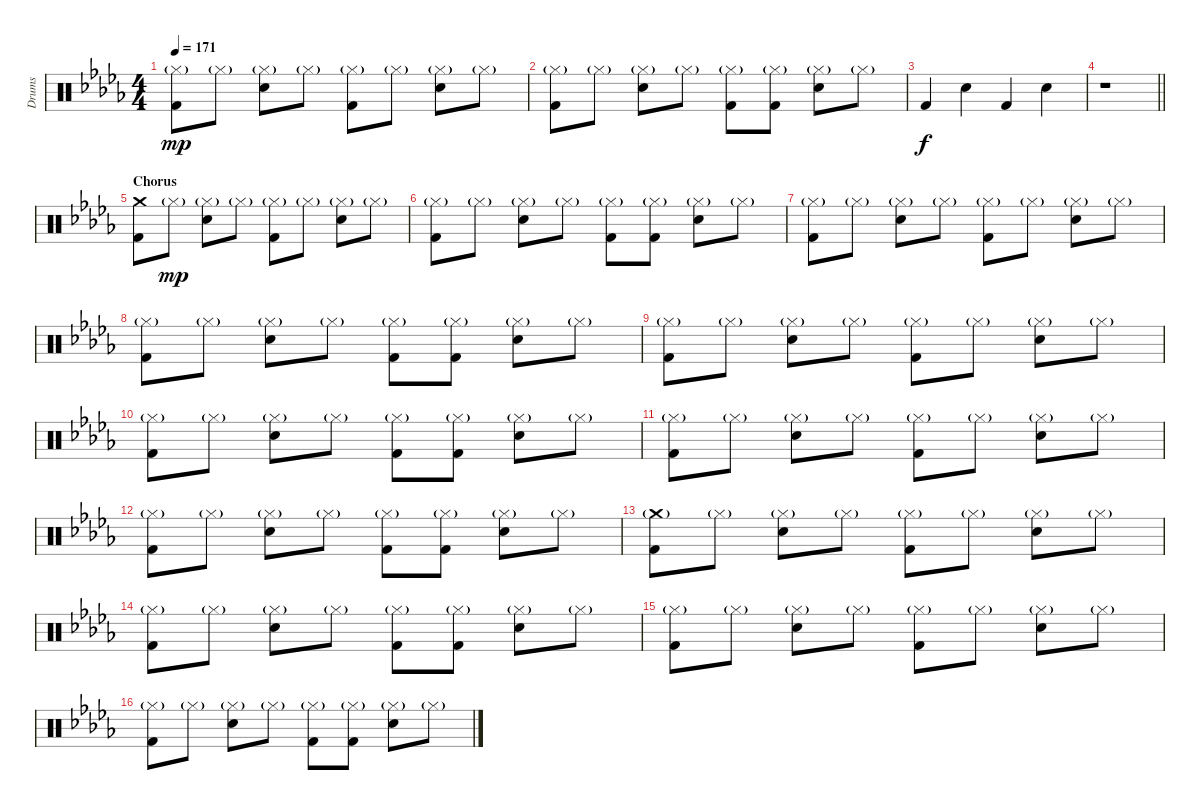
\track ("Drums" "Drums") {instrument percussion}
\staff {score}
\articulation defaults
\ts (4 4)
\tempo 171
\clef neutral
\ks db
("Hi-Hat (closed)"{g} "Kick (hit) 2").8{dy mp} "Hi-Hat (closed)"{g}.8 ("Hi-Hat (closed)"{g} "Snare (hit) 2").8 "Hi-Hat (closed)"{g}.8 ("Hi-Hat (closed)"{g} "Kick (hit) 2").8 "Hi-Hat (closed)"{g}.8 ("Hi-Hat (closed)"{g} "Snare (hit) 2").8 "Hi-Hat (closed)"{g}.8 |
("Hi-Hat (closed)"{g} "Kick (hit) 2").8 "Hi-Hat (closed)"{g}.8 ("Hi-Hat (closed)"{g} "Snare (hit) 2").8 "Hi-Hat (closed)"{g}.8 ("Hi-Hat (closed)"{g} "Kick (hit) 2").8 ("Hi-Hat (closed)"{g} "Kick (hit) 2").8 ("Hi-Hat (closed)"{g} "Snare (hit) 2").8 "Hi-Hat (closed)"{g}.8 |
"Kick (hit) 2".4{dy f} "Snare (hit) 2".4 "Kick (hit) 2".4 "Snare (hit) 2".4 |
\barLineRight lightlight
r.1 |
\section ("" "Chorus")
("Crash medium (hit)" "Kick (hit) 2").8 "Hi-Hat (closed)"{g}.8{dy mp} ("Hi-Hat (closed)"{g} "Snare (hit) 2").8 "Hi-Hat (closed)"{g}.8 ("Hi-Hat (closed)"{g} "Kick (hit) 2").8 "Hi-Hat (closed)"{g}.8 ("Hi-Hat (closed)"{g} "Snare (hit) 2").8 "Hi-Hat (closed)"{g}.8 |
("Hi-Hat (closed)"{g} "Kick (hit) 2").8 "Hi-Hat (closed)"{g}.8 ("Hi-Hat (closed)"{g} "Snare (hit) 2").8 "Hi-Hat (closed)"{g}.8 ("Hi-Hat (closed)"{g} "Kick (hit) 2").8 ("Hi-Hat (closed)"{g} "Kick (hit) 2").8 ("Hi-Hat (closed)"{g} "Snare (hit) 2").8 "Hi-Hat (closed)"{g}.8 |
("Hi-Hat (closed)"{g} "Kick (hit) 2").8 "Hi-Hat (closed)"{g}.8 ("Hi-Hat (closed)"{g} "Snare (hit) 2").8 "Hi-Hat (closed)"{g}.8 ("Hi-Hat (closed)"{g} "Kick (hit) 2").8 "Hi-Hat (closed)"{g}.8 ("Hi-Hat (closed)"{g} "Snare (hit) 2").8 "Hi-Hat (closed)"{g}.8 |
("Hi-Hat (closed)"{g} "Kick (hit) 2").8 "Hi-Hat (closed)"{g}.8 ("Hi-Hat (closed)"{g} "Snare (hit) 2").8 "Hi-Hat (closed)"{g}.8 ("Hi-Hat (closed)"{g} "Kick (hit) 2").8 ("Hi-Hat (closed)"{g} "Kick (hit) 2").8 ("Hi-Hat (closed)"{g} "Snare (hit) 2").8 "Hi-Hat (closed)"{g}.8 |
("Hi-Hat (closed)"{g} "Kick (hit) 2").8 "Hi-Hat (closed)"{g}.8 ("Hi-Hat (closed)"{g} "Snare (hit) 2").8 "Hi-Hat (closed)"{g}.8 ("Hi-Hat (closed)"{g} "Kick (hit) 2").8 "Hi-Hat (closed)"{g}.8 ("Hi-Hat (closed)"{g} "Snare (hit) 2").8 "Hi-Hat (closed)"{g}.8 |
("Hi-Hat (closed)"{g} "Kick (hit) 2").8 "Hi-Hat (closed)"{g}.8 ("Hi-Hat (closed)"{g} "Snare (hit) 2").8 "Hi-Hat (closed)"{g}.8 ("Hi-Hat (closed)"{g} "Kick (hit) 2").8 ("Hi-Hat (closed)"{g} "Kick (hit) 2").8 ("Hi-Hat (closed)"{g} "Snare (hit) 2").8 "Hi-Hat (closed)"{g}.8 |
("Hi-Hat (closed)"{g} "Kick (hit) 2").8 "Hi-Hat (closed)"{g}.8 ("Hi-Hat (closed)"{g} "Snare (hit) 2").8 "Hi-Hat (closed)"{g}.8 ("Hi-Hat (closed)"{g} "Kick (hit) 2").8 "Hi-Hat (closed)"{g}.8 ("Hi-Hat (closed)"{g} "Snare (hit) 2").8 "Hi-Hat (closed)"{g}.8 |
("Hi-Hat (closed)"{g} "Kick (hit) 2").8 "Hi-Hat (closed)"{g}.8 ("Hi-Hat (closed)"{g} "Snare (hit) 2").8 "Hi-Hat (closed)"{g}.8 ("Hi-Hat (closed)"{g} "Kick (hit) 2").8 ("Hi-Hat (closed)"{g} "Kick (hit) 2").8 ("Hi-Hat (closed)"{g} "Snare (hit) 2").8 "Hi-Hat (closed)"{g}.8 |
("Crash medium (hit)"{g} "Kick (hit) 2").8 "Hi-Hat (closed)"{g}.8 ("Hi-Hat (closed)"{g} "Snare (hit) 2").8 "Hi-Hat (closed)"{g}.8 ("Hi-Hat (closed)"{g} "Kick (hit) 2").8 "Hi-Hat (closed)"{g}.8 ("Hi-Hat (closed)"{g} "Snare (hit) 2").8 "Hi-Hat (closed)"{g}.8 |
("Hi-Hat (closed)"{g} "Kick (hit) 2").8 "Hi-Hat (closed)"{g}.8 ("Hi-Hat (closed)"{g} "Snare (hit) 2").8 "Hi-Hat (closed)"{g}.8 ("Hi-Hat (closed)"{g} "Kick (hit) 2").8 ("Hi-Hat (closed)"{g} "Kick (hit) 2").8 ("Hi-Hat (closed)"{g} "Snare (hit) 2").8 "Hi-Hat (closed)"{g}.8 |
("Hi-Hat (closed)"{g} "Kick (hit) 2").8 "Hi-Hat (closed)"{g}.8 ("Hi-Hat (closed)"{g} "Snare (hit) 2").8 "Hi-Hat (closed)"{g}.8 ("Hi-Hat (closed)"{g} "Kick (hit) 2").8 "Hi-Hat (closed)"{g}.8 ("Hi-Hat (closed)"{g} "Snare (hit) 2").8 "Hi-Hat (closed)"{g}.8 |
("Hi-Hat (closed)"{g} "Kick (hit) 2").8 "Hi-Hat (closed)"{g}.8 ("Hi-Hat (closed)"{g} "Snare (hit) 2").8 "Hi-Hat (closed)"{g}.8 ("Hi-Hat (closed)"{g} "Kick (hit) 2").8 ("Hi-Hat (closed)"{g} "Kick (hit) 2").8 ("Hi-Hat (closed)"{g} "Snare (hit) 2").8 "Hi-Hat (closed)"{g}.8
